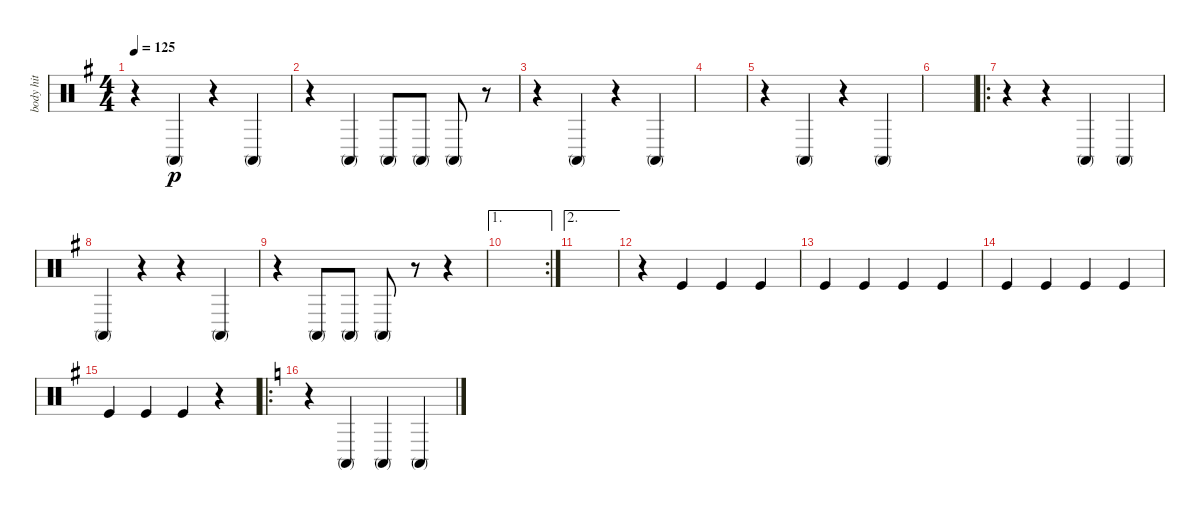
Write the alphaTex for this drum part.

\track ("body hit" "body hit") {instrument percussion}
\staff {score}
\articulation defaults
\ts (4 4)
\tempo 125
\clef neutral
\ks g
r.4{dy p} "Conga high (mute)".4 r.4 "Conga high (mute)".4 |
r.4 "Conga high (mute)".4 "Conga high (mute)".8 "Conga high (mute)".8 "Conga high (mute)".8 r.8 |
r.4 "Conga high (mute)".4 r.4 "Conga high (mute)".4 |
|
r.4 "Conga high (mute)".4 r.4 "Conga high (mute)".4 |
|
\ro
r.4 r.4 "Conga high (mute)".4 "Conga high (mute)".4 |
"Conga high (mute)".4 r.4 r.4 "Conga high (mute)".4 |
r.4 "Conga high (mute)".8 "Conga high (mute)".8 "Conga high (mute)".8 r.8 r.4 |
\ae 1
\rc 2
|
\ae 2
|
r.4 "Kick (hit)".4 "Kick (hit)".4 "Kick (hit)".4 |
"Kick (hit)".4 "Kick (hit)".4 "Kick (hit)".4 "Kick (hit)".4 |
"Kick (hit)".4 "Kick (hit)".4 "Kick (hit)".4 "Kick (hit)".4 |
"Kick (hit)".4 "Kick (hit)".4 "Kick (hit)".4 r.4 |
\ro
\ks c
r.4 "Conga high (mute)".4 "Conga high (mute)".4 "Conga high (mute)".4
